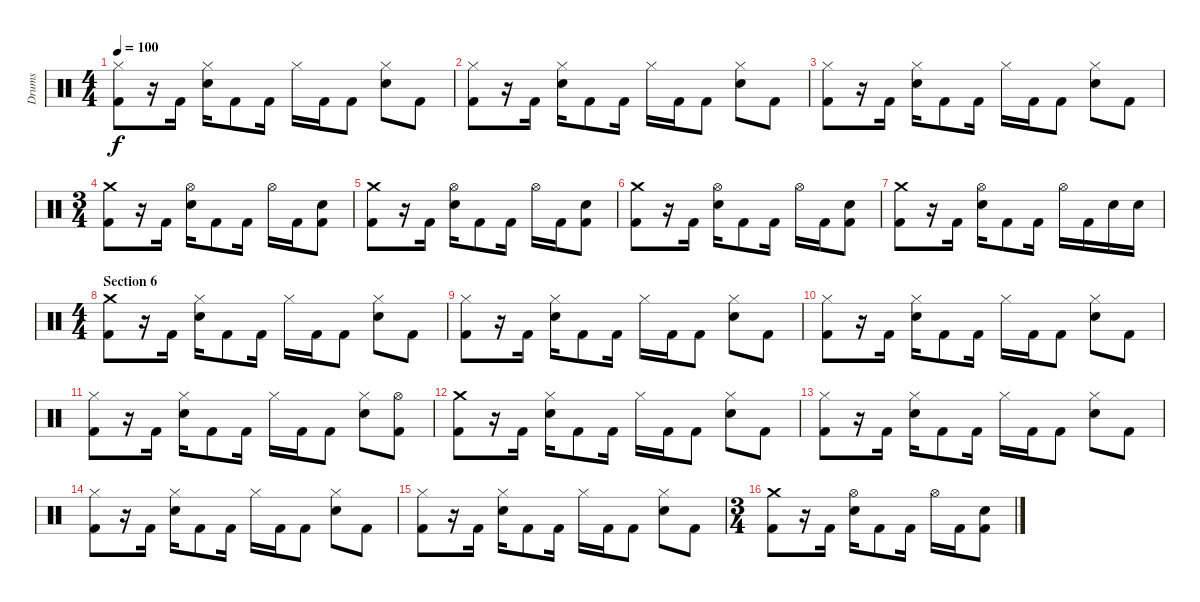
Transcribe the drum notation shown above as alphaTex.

\track ("Drums" "Drums") {instrument percussion}
\staff {score}
\articulation defaults
\ts (4 4)
\tempo 100
\clef neutral
\ks c
("Hi-Hat (closed)" "Kick (hit) 2").8{dy f} r.16 "Kick (hit) 2".16 ("Hi-Hat (closed)" "Snare (hit) 2").16 "Kick (hit) 2".8 "Kick (hit) 2".16 "Hi-Hat (closed)".16 "Kick (hit) 2".16 "Kick (hit) 2".8 ("Hi-Hat (closed)" "Snare (hit) 2").8 "Kick (hit) 2".8 |
("Hi-Hat (closed)" "Kick (hit) 2").8 r.16 "Kick (hit) 2".16 ("Hi-Hat (closed)" "Snare (hit) 2").16 "Kick (hit) 2".8 "Kick (hit) 2".16 "Hi-Hat (closed)".16 "Kick (hit) 2".16 "Kick (hit) 2".8 ("Hi-Hat (closed)" "Snare (hit) 2").8 "Kick (hit) 2".8 |
("Hi-Hat (closed)" "Kick (hit) 2").8 r.16 "Kick (hit) 2".16 ("Hi-Hat (closed)" "Snare (hit) 2").16 "Kick (hit) 2".8 "Kick (hit) 2".16 "Hi-Hat (closed)".16 "Kick (hit) 2".16 "Kick (hit) 2".8 ("Hi-Hat (closed)" "Snare (hit) 2").8 "Kick (hit) 2".8 |
\ts (3 4)
("Crash medium (hit)" "Kick (hit) 2").8 r.16 "Kick (hit) 2".16 ("Hi-Hat (open)" "Snare (hit) 2").16 "Kick (hit) 2".8 "Kick (hit) 2".16 "Hi-Hat (open)".16 "Kick (hit) 2".16 ("Snare (hit) 2" "Kick (hit) 2").8 |
("Crash medium (hit)" "Kick (hit) 2").8 r.16 "Kick (hit) 2".16 ("Hi-Hat (open)" "Snare (hit) 2").16 "Kick (hit) 2".8 "Kick (hit) 2".16 "Hi-Hat (open)".16 "Kick (hit) 2".16 ("Snare (hit) 2" "Kick (hit) 2").8 |
("Crash medium (hit)" "Kick (hit) 2").8 r.16 "Kick (hit) 2".16 ("Hi-Hat (open)" "Snare (hit) 2").16 "Kick (hit) 2".8 "Kick (hit) 2".16 "Hi-Hat (open)".16 "Kick (hit) 2".16 ("Snare (hit) 2" "Kick (hit) 2").8 |
("Crash medium (hit)" "Kick (hit) 2").8 r.16 "Kick (hit) 2".16 ("Hi-Hat (open)" "Snare (hit) 2").16 "Kick (hit) 2".8 "Kick (hit) 2".16 "Hi-Hat (open)".16 "Kick (hit) 2".16 "Snare (hit) 2".16 "Snare (hit) 2".16 |
\ts (4 4)
\section ("" "Section 6")
("Crash medium (hit)" "Kick (hit) 2").8 r.16 "Kick (hit) 2".16 ("Hi-Hat (closed)" "Snare (hit) 2").16 "Kick (hit) 2".8 "Kick (hit) 2".16 "Hi-Hat (closed)".16 "Kick (hit) 2".16 "Kick (hit) 2".8 ("Hi-Hat (closed)" "Snare (hit) 2").8 "Kick (hit) 2".8 |
("Hi-Hat (closed)" "Kick (hit) 2").8 r.16 "Kick (hit) 2".16 ("Hi-Hat (closed)" "Snare (hit) 2").16 "Kick (hit) 2".8 "Kick (hit) 2".16 "Hi-Hat (closed)".16 "Kick (hit) 2".16 "Kick (hit) 2".8 ("Hi-Hat (closed)" "Snare (hit) 2").8 "Kick (hit) 2".8 |
("Hi-Hat (closed)" "Kick (hit) 2").8 r.16 "Kick (hit) 2".16 ("Hi-Hat (closed)" "Snare (hit) 2").16 "Kick (hit) 2".8 "Kick (hit) 2".16 "Hi-Hat (closed)".16 "Kick (hit) 2".16 "Kick (hit) 2".8 ("Hi-Hat (closed)" "Snare (hit) 2").8 "Kick (hit) 2".8 |
("Hi-Hat (closed)" "Kick (hit) 2").8 r.16 "Kick (hit) 2".16 ("Hi-Hat (closed)" "Snare (hit) 2").16 "Kick (hit) 2".8 "Kick (hit) 2".16 "Hi-Hat (closed)".16 "Kick (hit) 2".16 "Kick (hit) 2".8 ("Hi-Hat (closed)" "Snare (hit) 2").8 ("Hi-Hat (open)" "Kick (hit) 2").8 |
("Crash medium (hit)" "Kick (hit) 2").8 r.16 "Kick (hit) 2".16 ("Hi-Hat (closed)" "Snare (hit) 2").16 "Kick (hit) 2".8 "Kick (hit) 2".16 "Hi-Hat (closed)".16 "Kick (hit) 2".16 "Kick (hit) 2".8 ("Hi-Hat (closed)" "Snare (hit) 2").8 "Kick (hit) 2".8 |
("Hi-Hat (closed)" "Kick (hit) 2").8 r.16 "Kick (hit) 2".16 ("Hi-Hat (closed)" "Snare (hit) 2").16 "Kick (hit) 2".8 "Kick (hit) 2".16 "Hi-Hat (closed)".16 "Kick (hit) 2".16 "Kick (hit) 2".8 ("Hi-Hat (closed)" "Snare (hit) 2").8 "Kick (hit) 2".8 |
("Hi-Hat (closed)" "Kick (hit) 2").8 r.16 "Kick (hit) 2".16 ("Hi-Hat (closed)" "Snare (hit) 2").16 "Kick (hit) 2".8 "Kick (hit) 2".16 "Hi-Hat (closed)".16 "Kick (hit) 2".16 "Kick (hit) 2".8 ("Hi-Hat (closed)" "Snare (hit) 2").8 "Kick (hit) 2".8 |
("Hi-Hat (closed)" "Kick (hit) 2").8 r.16 "Kick (hit) 2".16 ("Hi-Hat (closed)" "Snare (hit) 2").16 "Kick (hit) 2".8 "Kick (hit) 2".16 "Hi-Hat (closed)".16 "Kick (hit) 2".16 "Kick (hit) 2".8 ("Hi-Hat (closed)" "Snare (hit) 2").8 "Kick (hit) 2".8 |
\ts (3 4)
("Crash medium (hit)" "Kick (hit) 2").8 r.16 "Kick (hit) 2".16 ("Hi-Hat (open)" "Snare (hit) 2").16 "Kick (hit) 2".8 "Kick (hit) 2".16 "Hi-Hat (open)".16 "Kick (hit) 2".16 ("Snare (hit) 2" "Kick (hit) 2").8
